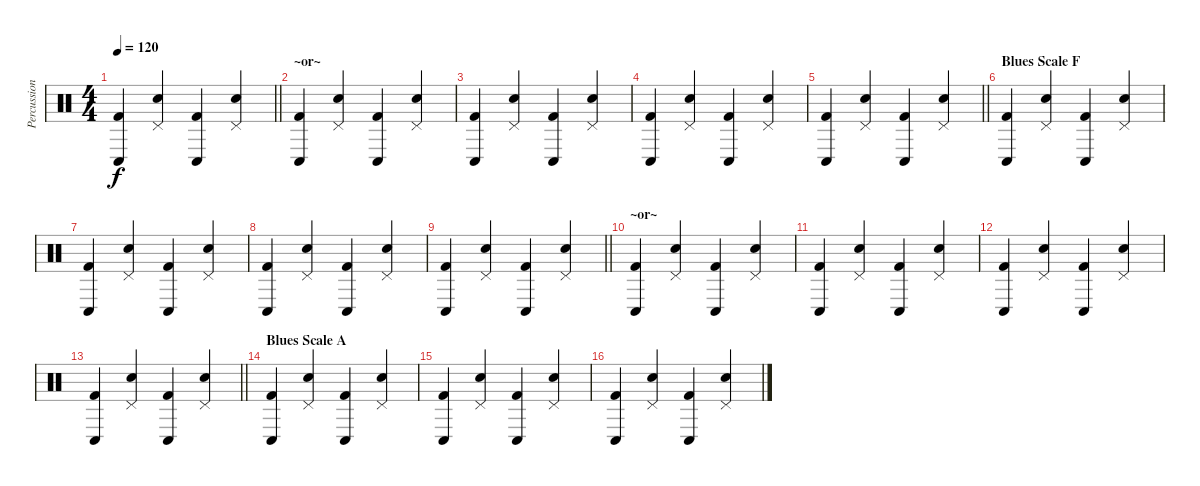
\track ("Percussion" "Percussion") {instrument percussion}
\staff {score}
\articulation defaults
\ts (4 4)
\tempo 120
\clef neutral
\barLineRight lightlight
\ks c
("Kick (hit) 2" "Conga low (hit)").4{dy f} ("Snare (hit) 2" "Pedal Hi-Hat (hit)").4 ("Kick (hit) 2" "Conga low (hit)").4 ("Snare (hit) 2" "Pedal Hi-Hat (hit)").4 |
\section ("" "~or~")
("Kick (hit) 2" "Conga low (hit)").4 ("Snare (hit) 2" "Pedal Hi-Hat (hit)").4 ("Kick (hit) 2" "Conga low (hit)").4 ("Snare (hit) 2" "Pedal Hi-Hat (hit)").4 |
("Kick (hit) 2" "Conga low (hit)").4 ("Snare (hit) 2" "Pedal Hi-Hat (hit)").4 ("Kick (hit) 2" "Conga low (hit)").4 ("Snare (hit) 2" "Pedal Hi-Hat (hit)").4 |
("Kick (hit) 2" "Conga low (hit)").4 ("Snare (hit) 2" "Pedal Hi-Hat (hit)").4 ("Kick (hit) 2" "Conga low (hit)").4 ("Snare (hit) 2" "Pedal Hi-Hat (hit)").4 |
\barLineRight lightlight
("Kick (hit) 2" "Conga low (hit)").4 ("Snare (hit) 2" "Pedal Hi-Hat (hit)").4 ("Kick (hit) 2" "Conga low (hit)").4 ("Snare (hit) 2" "Pedal Hi-Hat (hit)").4 |
\section ("" "Blues Scale F")
("Kick (hit) 2" "Conga low (hit)").4 ("Snare (hit) 2" "Pedal Hi-Hat (hit)").4 ("Kick (hit) 2" "Conga low (hit)").4 ("Snare (hit) 2" "Pedal Hi-Hat (hit)").4 |
("Kick (hit) 2" "Conga low (hit)").4 ("Snare (hit) 2" "Pedal Hi-Hat (hit)").4 ("Kick (hit) 2" "Conga low (hit)").4 ("Snare (hit) 2" "Pedal Hi-Hat (hit)").4 |
("Kick (hit) 2" "Conga low (hit)").4 ("Snare (hit) 2" "Pedal Hi-Hat (hit)").4 ("Kick (hit) 2" "Conga low (hit)").4 ("Snare (hit) 2" "Pedal Hi-Hat (hit)").4 |
\barLineRight lightlight
("Kick (hit) 2" "Conga low (hit)").4 ("Snare (hit) 2" "Pedal Hi-Hat (hit)").4 ("Kick (hit) 2" "Conga low (hit)").4 ("Snare (hit) 2" "Pedal Hi-Hat (hit)").4 |
\section ("" "~or~")
("Kick (hit) 2" "Conga low (hit)").4 ("Snare (hit) 2" "Pedal Hi-Hat (hit)").4 ("Kick (hit) 2" "Conga low (hit)").4 ("Snare (hit) 2" "Pedal Hi-Hat (hit)").4 |
("Kick (hit) 2" "Conga low (hit)").4 ("Snare (hit) 2" "Pedal Hi-Hat (hit)").4 ("Kick (hit) 2" "Conga low (hit)").4 ("Snare (hit) 2" "Pedal Hi-Hat (hit)").4 |
("Kick (hit) 2" "Conga low (hit)").4 ("Snare (hit) 2" "Pedal Hi-Hat (hit)").4 ("Kick (hit) 2" "Conga low (hit)").4 ("Snare (hit) 2" "Pedal Hi-Hat (hit)").4 |
\barLineRight lightlight
("Kick (hit) 2" "Conga low (hit)").4 ("Snare (hit) 2" "Pedal Hi-Hat (hit)").4 ("Kick (hit) 2" "Conga low (hit)").4 ("Snare (hit) 2" "Pedal Hi-Hat (hit)").4 |
\section ("" "Blues Scale A")
("Kick (hit) 2" "Conga low (hit)").4 ("Snare (hit) 2" "Pedal Hi-Hat (hit)").4 ("Kick (hit) 2" "Conga low (hit)").4 ("Snare (hit) 2" "Pedal Hi-Hat (hit)").4 |
("Kick (hit) 2" "Conga low (hit)").4 ("Snare (hit) 2" "Pedal Hi-Hat (hit)").4 ("Kick (hit) 2" "Conga low (hit)").4 ("Snare (hit) 2" "Pedal Hi-Hat (hit)").4 |
("Kick (hit) 2" "Conga low (hit)").4 ("Snare (hit) 2" "Pedal Hi-Hat (hit)").4 ("Kick (hit) 2" "Conga low (hit)").4 ("Snare (hit) 2" "Pedal Hi-Hat (hit)").4
